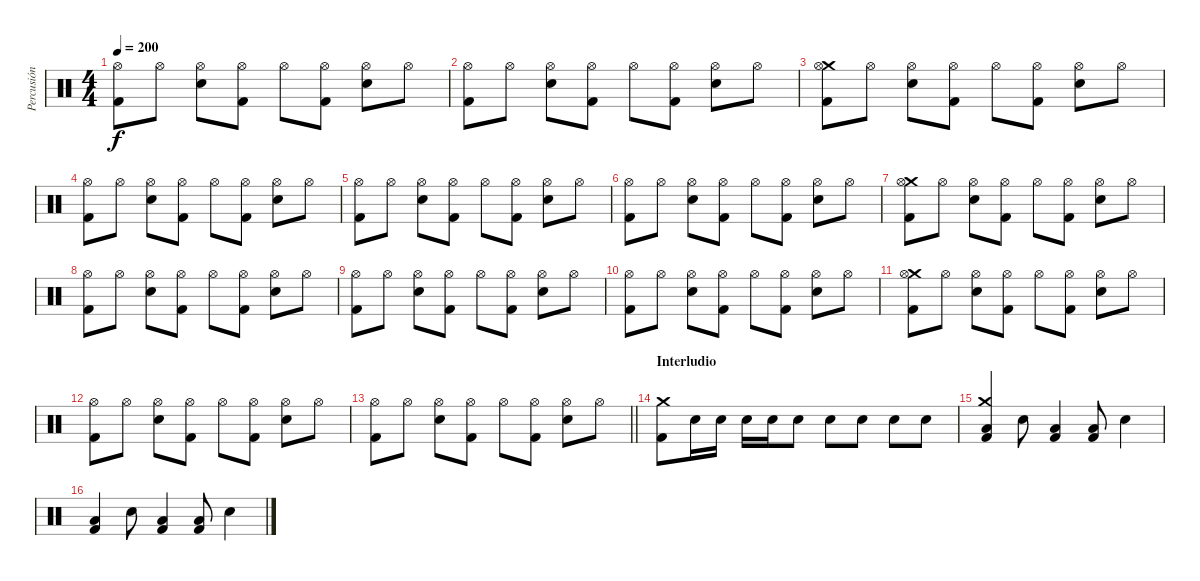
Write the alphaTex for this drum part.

\track ("Percusión" "Percusión") {instrument percussion}
\staff {score}
\articulation defaults
\ts (4 4)
\tempo 200
\clef neutral
\ks c
("Hi-Hat (open)" "Kick (hit) 2").8{dy f} "Hi-Hat (open)".8 ("Hi-Hat (open)" "Snare (hit) 2").8 ("Hi-Hat (open)" "Kick (hit) 2").8 "Hi-Hat (open)".8 ("Hi-Hat (open)" "Kick (hit) 2").8 ("Hi-Hat (open)" "Snare (hit) 2").8 "Hi-Hat (open)".8 |
("Hi-Hat (open)" "Kick (hit) 2").8 "Hi-Hat (open)".8 ("Hi-Hat (open)" "Snare (hit) 2").8 ("Hi-Hat (open)" "Kick (hit) 2").8 "Hi-Hat (open)".8 ("Hi-Hat (open)" "Kick (hit) 2").8 ("Hi-Hat (open)" "Snare (hit) 2").8 "Hi-Hat (open)".8 |
("Crash medium (hit)" "Hi-Hat (open)" "Kick (hit) 2").8 "Hi-Hat (open)".8 ("Hi-Hat (open)" "Snare (hit) 2").8 ("Hi-Hat (open)" "Kick (hit) 2").8 "Hi-Hat (open)".8 ("Hi-Hat (open)" "Kick (hit) 2").8 ("Hi-Hat (open)" "Snare (hit) 2").8 "Hi-Hat (open)".8 |
("Hi-Hat (open)" "Kick (hit) 2").8 "Hi-Hat (open)".8 ("Hi-Hat (open)" "Snare (hit) 2").8 ("Hi-Hat (open)" "Kick (hit) 2").8 "Hi-Hat (open)".8 ("Hi-Hat (open)" "Kick (hit) 2").8 ("Hi-Hat (open)" "Snare (hit) 2").8 "Hi-Hat (open)".8 |
("Hi-Hat (open)" "Kick (hit) 2").8 "Hi-Hat (open)".8 ("Hi-Hat (open)" "Snare (hit) 2").8 ("Hi-Hat (open)" "Kick (hit) 2").8 "Hi-Hat (open)".8 ("Hi-Hat (open)" "Kick (hit) 2").8 ("Hi-Hat (open)" "Snare (hit) 2").8 "Hi-Hat (open)".8 |
("Hi-Hat (open)" "Kick (hit) 2").8 "Hi-Hat (open)".8 ("Hi-Hat (open)" "Snare (hit) 2").8 ("Hi-Hat (open)" "Kick (hit) 2").8 "Hi-Hat (open)".8 ("Hi-Hat (open)" "Kick (hit) 2").8 ("Hi-Hat (open)" "Snare (hit) 2").8 "Hi-Hat (open)".8 |
("Crash medium (hit)" "Hi-Hat (open)" "Kick (hit) 2").8 "Hi-Hat (open)".8 ("Hi-Hat (open)" "Snare (hit) 2").8 ("Hi-Hat (open)" "Kick (hit) 2").8 "Hi-Hat (open)".8 ("Hi-Hat (open)" "Kick (hit) 2").8 ("Hi-Hat (open)" "Snare (hit) 2").8 "Hi-Hat (open)".8 |
("Hi-Hat (open)" "Kick (hit) 2").8 "Hi-Hat (open)".8 ("Hi-Hat (open)" "Snare (hit) 2").8 ("Hi-Hat (open)" "Kick (hit) 2").8 "Hi-Hat (open)".8 ("Hi-Hat (open)" "Kick (hit) 2").8 ("Hi-Hat (open)" "Snare (hit) 2").8 "Hi-Hat (open)".8 |
("Hi-Hat (open)" "Kick (hit) 2").8 "Hi-Hat (open)".8 ("Hi-Hat (open)" "Snare (hit) 2").8 ("Hi-Hat (open)" "Kick (hit) 2").8 "Hi-Hat (open)".8 ("Hi-Hat (open)" "Kick (hit) 2").8 ("Hi-Hat (open)" "Snare (hit) 2").8 "Hi-Hat (open)".8 |
("Hi-Hat (open)" "Kick (hit) 2").8 "Hi-Hat (open)".8 ("Hi-Hat (open)" "Snare (hit) 2").8 ("Hi-Hat (open)" "Kick (hit) 2").8 "Hi-Hat (open)".8 ("Hi-Hat (open)" "Kick (hit) 2").8 ("Hi-Hat (open)" "Snare (hit) 2").8 "Hi-Hat (open)".8 |
("Crash medium (hit)" "Hi-Hat (open)" "Kick (hit) 2").8 "Hi-Hat (open)".8 ("Hi-Hat (open)" "Snare (hit) 2").8 ("Hi-Hat (open)" "Kick (hit) 2").8 "Hi-Hat (open)".8 ("Hi-Hat (open)" "Kick (hit) 2").8 ("Hi-Hat (open)" "Snare (hit) 2").8 "Hi-Hat (open)".8 |
("Hi-Hat (open)" "Kick (hit) 2").8 "Hi-Hat (open)".8 ("Hi-Hat (open)" "Snare (hit) 2").8 ("Hi-Hat (open)" "Kick (hit) 2").8 "Hi-Hat (open)".8 ("Hi-Hat (open)" "Kick (hit) 2").8 ("Hi-Hat (open)" "Snare (hit) 2").8 "Hi-Hat (open)".8 |
\barLineRight lightlight
("Hi-Hat (open)" "Kick (hit) 2").8 "Hi-Hat (open)".8 ("Hi-Hat (open)" "Snare (hit) 2").8 ("Hi-Hat (open)" "Kick (hit) 2").8 "Hi-Hat (open)".8 ("Hi-Hat (open)" "Kick (hit) 2").8 ("Hi-Hat (open)" "Snare (hit) 2").8 "Hi-Hat (open)".8 |
\section ("" "Interludio")
("Crash medium (hit)" "Kick (hit) 2").8 "Snare (hit) 2".16 "Snare (hit) 2".16 "Snare (hit) 2".16 "Snare (hit) 2".16 "Snare (hit) 2".8 "Snare (hit) 2".8 "Snare (hit) 2".8 "Snare (hit) 2".8 "Snare (hit) 2".8 |
("Crash medium (hit)" "Low Floor Tom (hit)" "Kick (hit) 2").4 "Snare (hit) 2".8 ("Low Floor Tom (hit)" "Kick (hit) 2").4 ("Low Floor Tom (hit)" "Kick (hit) 2").8 "Snare (hit) 2".4 |
("Low Floor Tom (hit)" "Kick (hit) 2").4 "Snare (hit) 2".8 ("Low Floor Tom (hit)" "Kick (hit) 2").4 ("Low Floor Tom (hit)" "Kick (hit) 2").8 "Snare (hit) 2".4
